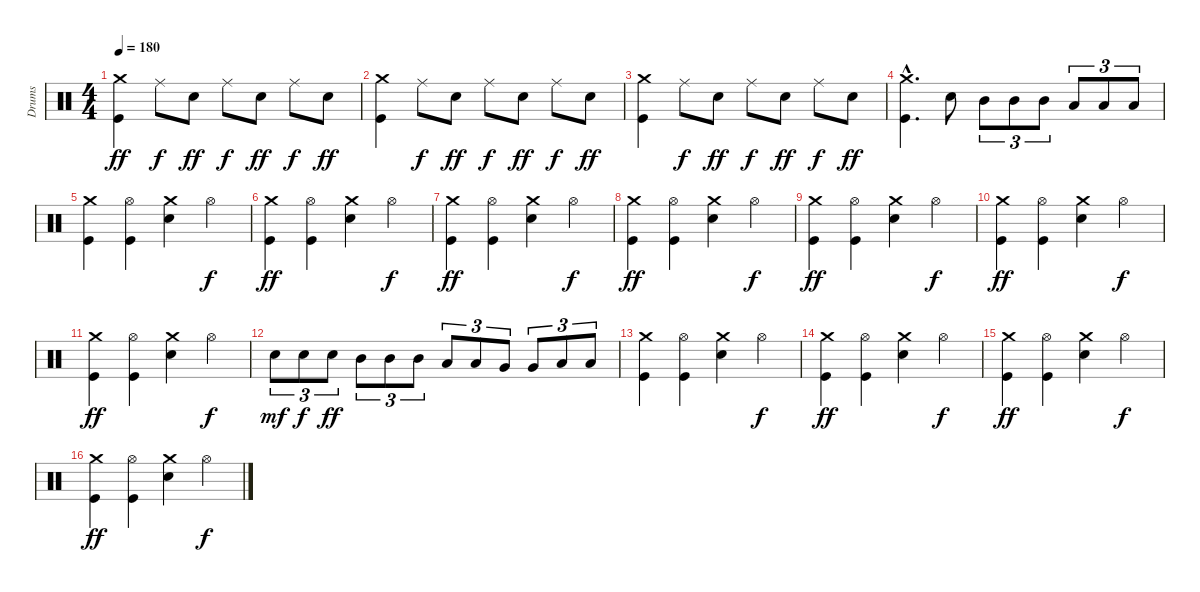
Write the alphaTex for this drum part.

\track ("Drums" "Drums") {instrument percussion}
\staff {score}
\articulation defaults
\ts (4 4)
\tempo 180
\clef neutral
\ks c
("Crash medium (hit)" "Kick (hit)").4{dy ff} "Ride (middle)".8{dy f} "Electric Snare (hit)".8{dy ff} "Ride (middle)".8{dy f} "Electric Snare (hit)".8{dy ff} "Ride (middle)".8{dy f} "Electric Snare (hit)".8{dy ff} |
("Crash medium (hit)" "Kick (hit)").4 "Ride (middle)".8{dy f} "Electric Snare (hit)".8{dy ff} "Ride (middle)".8{dy f} "Electric Snare (hit)".8{dy ff} "Ride (middle)".8{dy f} "Electric Snare (hit)".8{dy ff} |
("Crash medium (hit)" "Kick (hit)").4 "Ride (middle)".8{dy f} "Electric Snare (hit)".8{dy ff} "Ride (middle)".8{dy f} "Electric Snare (hit)".8{dy ff} "Ride (middle)".8{dy f} "Electric Snare (hit)".8{dy ff} |
("Crash medium (hit)"{hac} "Kick (hit)"{hac}).4{d} "Electric Snare (hit)".8 "Mid Tom (hit)".8{tu (3 2)} "Mid Tom (hit)".8{tu (3 2)} "Mid Tom (hit)".8{tu (3 2)} "Low Tom (hit)".8{tu (3 2)} "Low Tom (hit)".8{tu (3 2)} "Low Tom (hit)".8{tu (3 2)} |
("Crash medium (hit)" "Kick (hit)").4 ("Hi-Hat (open)" "Kick (hit)").4 ("Crash medium (hit)" "Electric Snare (hit)").4 "Hi-Hat (open)".4{dy f} |
("Crash medium (hit)" "Kick (hit)").4{dy ff} ("Hi-Hat (open)" "Kick (hit)").4 ("Crash medium (hit)" "Electric Snare (hit)").4 "Hi-Hat (open)".4{dy f} |
("Crash medium (hit)" "Kick (hit)").4{dy ff} ("Hi-Hat (open)" "Kick (hit)").4 ("Crash medium (hit)" "Electric Snare (hit)").4 "Hi-Hat (open)".4{dy f} |
("Crash medium (hit)" "Kick (hit)").4{dy ff} ("Hi-Hat (open)" "Kick (hit)").4 ("Crash medium (hit)" "Electric Snare (hit)").4 "Hi-Hat (open)".4{dy f} |
("Crash medium (hit)" "Kick (hit)").4{dy ff} ("Hi-Hat (open)" "Kick (hit)").4 ("Crash medium (hit)" "Electric Snare (hit)").4 "Hi-Hat (open)".4{dy f} |
("Crash medium (hit)" "Kick (hit)").4{dy ff} ("Hi-Hat (open)" "Kick (hit)").4 ("Crash medium (hit)" "Electric Snare (hit)").4 "Hi-Hat (open)".4{dy f} |
("Crash medium (hit)" "Kick (hit)").4{dy ff} ("Hi-Hat (open)" "Kick (hit)").4 ("Crash medium (hit)" "Electric Snare (hit)").4 "Hi-Hat (open)".4{dy f} |
"Electric Snare (hit)".8{tu (3 2) dy mf} "Electric Snare (hit)".8{tu (3 2) dy f} "Electric Snare (hit)".8{tu (3 2) dy ff} "Mid Tom (hit)".8{tu (3 2)} "Mid Tom (hit)".8{tu (3 2)} "Mid Tom (hit)".8{tu (3 2)} "Low Tom (hit)".8{tu (3 2)} "Low Tom (hit)".8{tu (3 2)} "Very Low Tom (hit)".8{tu (3 2)} "Very Low Tom (hit)".8{tu (3 2)} "Low Floor Tom (hit)".8{tu (3 2)} "Low Floor Tom (hit)".8{tu (3 2)} |
("Crash medium (hit)" "Kick (hit)").4 ("Hi-Hat (open)" "Kick (hit)").4 ("Crash medium (hit)" "Electric Snare (hit)").4 "Hi-Hat (open)".4{dy f} |
("Crash medium (hit)" "Kick (hit)").4{dy ff} ("Hi-Hat (open)" "Kick (hit)").4 ("Crash medium (hit)" "Electric Snare (hit)").4 "Hi-Hat (open)".4{dy f} |
("Crash medium (hit)" "Kick (hit)").4{dy ff} ("Hi-Hat (open)" "Kick (hit)").4 ("Crash medium (hit)" "Electric Snare (hit)").4 "Hi-Hat (open)".4{dy f} |
("Crash medium (hit)" "Kick (hit)").4{dy ff} ("Hi-Hat (open)" "Kick (hit)").4 ("Crash medium (hit)" "Electric Snare (hit)").4 "Hi-Hat (open)".4{dy f}
